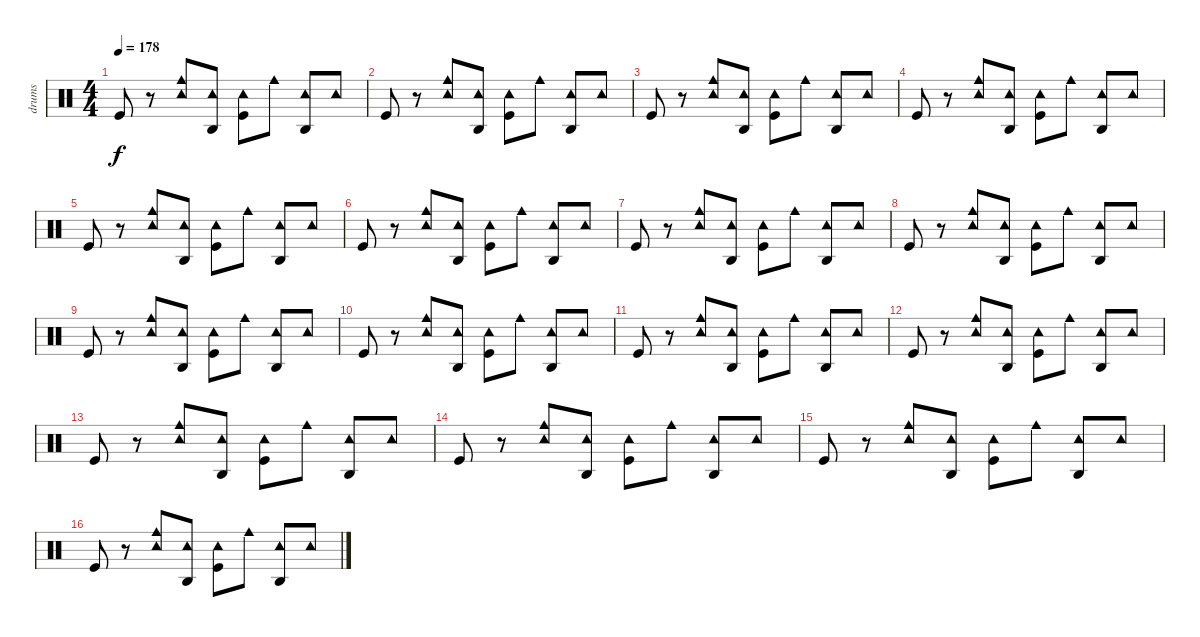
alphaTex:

\track ("drums" "drums") {instrument percussion}
\staff {score}
\articulation defaults
\ts (4 4)
\tempo 178
\clef neutral
\ks c "Kick (hit)".8{dy f}
r.8 ("Tambourine (hit)" "Cowbell medium (hit)").8 ("Agogo high (hit)" "Tambourine (hit)").8 ("Tambourine (hit)" "Kick (hit)").8 "Cowbell medium (hit)".8 ("Agogo high (hit)" "Tambourine (hit)").8 "Tambourine (hit)".8 |
"Kick (hit)".8 r.8 ("Tambourine (hit)" "Cowbell medium (hit)").8 ("Agogo high (hit)" "Tambourine (hit)").8 ("Tambourine (hit)" "Kick (hit)").8 "Cowbell medium (hit)".8 ("Agogo high (hit)" "Tambourine (hit)").8 "Tambourine (hit)".8 |
"Kick (hit)".8 r.8 ("Tambourine (hit)" "Cowbell medium (hit)").8 ("Agogo high (hit)" "Tambourine (hit)").8 ("Tambourine (hit)" "Kick (hit)").8 "Cowbell medium (hit)".8 ("Agogo high (hit)" "Tambourine (hit)").8 "Tambourine (hit)".8 |
"Kick (hit)".8 r.8 ("Tambourine (hit)" "Cowbell medium (hit)").8 ("Agogo high (hit)" "Tambourine (hit)").8 ("Tambourine (hit)" "Kick (hit)").8 "Cowbell medium (hit)".8 ("Agogo high (hit)" "Tambourine (hit)").8 "Tambourine (hit)".8 |
"Kick (hit)".8 r.8 ("Tambourine (hit)" "Cowbell medium (hit)").8 ("Agogo high (hit)" "Tambourine (hit)").8 ("Tambourine (hit)" "Kick (hit)").8 "Cowbell medium (hit)".8 ("Agogo high (hit)" "Tambourine (hit)").8 "Tambourine (hit)".8 |
"Kick (hit)".8 r.8 ("Tambourine (hit)" "Cowbell medium (hit)").8 ("Agogo high (hit)" "Tambourine (hit)").8 ("Tambourine (hit)" "Kick (hit)").8 "Cowbell medium (hit)".8 ("Agogo high (hit)" "Tambourine (hit)").8 "Tambourine (hit)".8 |
"Kick (hit)".8 r.8 ("Tambourine (hit)" "Cowbell medium (hit)").8 ("Agogo high (hit)" "Tambourine (hit)").8 ("Tambourine (hit)" "Kick (hit)").8 "Cowbell medium (hit)".8 ("Agogo high (hit)" "Tambourine (hit)").8 "Tambourine (hit)".8 |
"Kick (hit)".8 r.8 ("Tambourine (hit)" "Cowbell medium (hit)").8 ("Agogo high (hit)" "Tambourine (hit)").8 ("Tambourine (hit)" "Kick (hit)").8 "Cowbell medium (hit)".8 ("Agogo high (hit)" "Tambourine (hit)").8 "Tambourine (hit)".8 |
"Kick (hit)".8 r.8 ("Tambourine (hit)" "Cowbell medium (hit)").8 ("Agogo high (hit)" "Tambourine (hit)").8 ("Tambourine (hit)" "Kick (hit)").8 "Cowbell medium (hit)".8 ("Agogo high (hit)" "Tambourine (hit)").8 "Tambourine (hit)".8 |
"Kick (hit)".8 r.8 ("Tambourine (hit)" "Cowbell medium (hit)").8 ("Agogo high (hit)" "Tambourine (hit)").8 ("Tambourine (hit)" "Kick (hit)").8 "Cowbell medium (hit)".8 ("Agogo high (hit)" "Tambourine (hit)").8 "Tambourine (hit)".8 |
"Kick (hit)".8 r.8 ("Tambourine (hit)" "Cowbell medium (hit)").8 ("Agogo high (hit)" "Tambourine (hit)").8 ("Tambourine (hit)" "Kick (hit)").8 "Cowbell medium (hit)".8 ("Agogo high (hit)" "Tambourine (hit)").8 "Tambourine (hit)".8 |
"Kick (hit)".8 r.8 ("Tambourine (hit)" "Cowbell medium (hit)").8 ("Agogo high (hit)" "Tambourine (hit)").8 ("Tambourine (hit)" "Kick (hit)").8 "Cowbell medium (hit)".8 ("Agogo high (hit)" "Tambourine (hit)").8 "Tambourine (hit)".8 |
"Kick (hit)".8 r.8 ("Tambourine (hit)" "Cowbell medium (hit)").8 ("Agogo high (hit)" "Tambourine (hit)").8 ("Tambourine (hit)" "Kick (hit)").8 "Cowbell medium (hit)".8 ("Agogo high (hit)" "Tambourine (hit)").8 "Tambourine (hit)".8 |
"Kick (hit)".8 r.8 ("Tambourine (hit)" "Cowbell medium (hit)").8 ("Agogo high (hit)" "Tambourine (hit)").8 ("Tambourine (hit)" "Kick (hit)").8 "Cowbell medium (hit)".8 ("Agogo high (hit)" "Tambourine (hit)").8 "Tambourine (hit)".8 |
"Kick (hit)".8 r.8 ("Tambourine (hit)" "Cowbell medium (hit)").8 ("Agogo high (hit)" "Tambourine (hit)").8 ("Tambourine (hit)" "Kick (hit)").8 "Cowbell medium (hit)".8 ("Agogo high (hit)" "Tambourine (hit)").8 "Tambourine (hit)".8 |
"Kick (hit)".8 r.8 ("Tambourine (hit)" "Cowbell medium (hit)").8 ("Agogo high (hit)" "Tambourine (hit)").8 ("Tambourine (hit)" "Kick (hit)").8 "Cowbell medium (hit)".8 ("Agogo high (hit)" "Tambourine (hit)").8 "Tambourine (hit)".8
